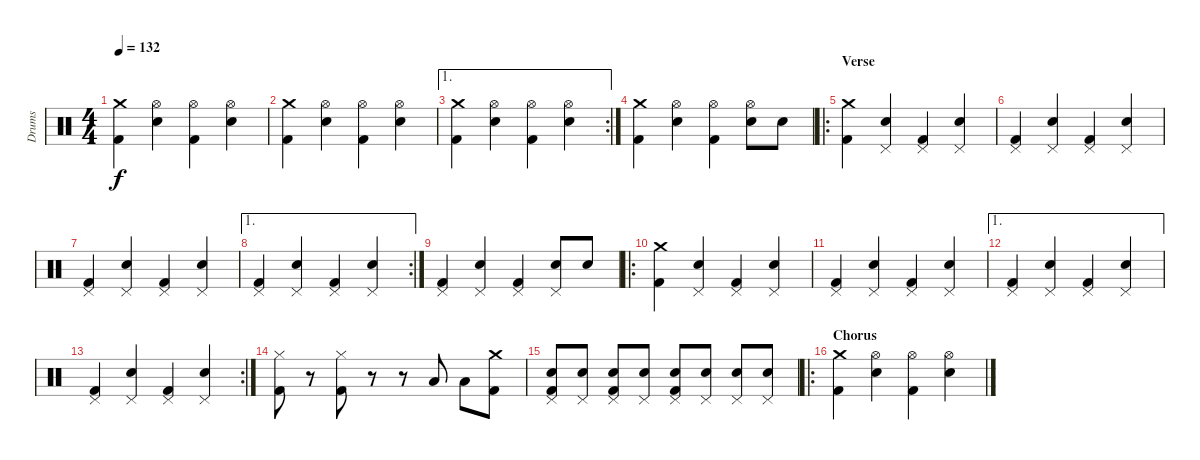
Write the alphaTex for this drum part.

\track ("Drums" "Drums") {instrument percussion}
\staff {score}
\articulation defaults
\ts (4 4)
\tempo 132
\clef neutral
\ks c
("Kick (hit) 2" "Crash medium (hit)").4{dy f} ("Electric Snare (hit)" "Hi-Hat (open)").4 ("Kick (hit) 2" "Hi-Hat (open)").4 ("Electric Snare (hit)" "Hi-Hat (open)").4 |
("Kick (hit) 2" "Crash medium (hit)").4 ("Electric Snare (hit)" "Hi-Hat (open)").4 ("Kick (hit) 2" "Hi-Hat (open)").4 ("Electric Snare (hit)" "Hi-Hat (open)").4 |
\ae 1
\rc 2
("Kick (hit) 2" "Crash medium (hit)").4 ("Electric Snare (hit)" "Hi-Hat (open)").4 ("Kick (hit) 2" "Hi-Hat (open)").4 ("Electric Snare (hit)" "Hi-Hat (open)").4 |
("Kick (hit) 2" "Crash medium (hit)").4 ("Electric Snare (hit)" "Hi-Hat (open)").4 ("Kick (hit) 2" "Hi-Hat (open)").4 ("Electric Snare (hit)" "Hi-Hat (open)").8 "Snare (hit) 2".8 |
\ro
\section ("" "Verse")
("Kick (hit) 2" "Crash medium (hit)").4 ("Snare (hit) 2" "Pedal Hi-Hat (hit)").4 ("Kick (hit) 2" "Pedal Hi-Hat (hit)").4 ("Snare (hit) 2" "Pedal Hi-Hat (hit)").4 |
("Kick (hit) 2" "Pedal Hi-Hat (hit)").4 ("Snare (hit) 2" "Pedal Hi-Hat (hit)").4 ("Kick (hit) 2" "Pedal Hi-Hat (hit)").4 ("Snare (hit) 2" "Pedal Hi-Hat (hit)").4 |
("Kick (hit) 2" "Pedal Hi-Hat (hit)").4 ("Snare (hit) 2" "Pedal Hi-Hat (hit)").4 ("Kick (hit) 2" "Pedal Hi-Hat (hit)").4 ("Snare (hit) 2" "Pedal Hi-Hat (hit)").4 |
\ae 1
\rc 2
("Kick (hit) 2" "Pedal Hi-Hat (hit)").4 ("Snare (hit) 2" "Pedal Hi-Hat (hit)").4 ("Kick (hit) 2" "Pedal Hi-Hat (hit)").4 ("Snare (hit) 2" "Pedal Hi-Hat (hit)").4 |
("Kick (hit) 2" "Pedal Hi-Hat (hit)").4 ("Snare (hit) 2" "Pedal Hi-Hat (hit)").4 ("Kick (hit) 2" "Pedal Hi-Hat (hit)").4 ("Snare (hit) 2" "Pedal Hi-Hat (hit)").8 "Snare (hit) 2".8 |
\ro
("Kick (hit) 2" "Crash medium (hit)").4 ("Snare (hit) 2" "Pedal Hi-Hat (hit)").4 ("Kick (hit) 2" "Pedal Hi-Hat (hit)").4 ("Snare (hit) 2" "Pedal Hi-Hat (hit)").4 |
("Kick (hit) 2" "Pedal Hi-Hat (hit)").4 ("Snare (hit) 2" "Pedal Hi-Hat (hit)").4 ("Kick (hit) 2" "Pedal Hi-Hat (hit)").4 ("Snare (hit) 2" "Pedal Hi-Hat (hit)").4 |
\ae 1
("Kick (hit) 2" "Pedal Hi-Hat (hit)").4 ("Snare (hit) 2" "Pedal Hi-Hat (hit)").4 ("Kick (hit) 2" "Pedal Hi-Hat (hit)").4 ("Snare (hit) 2" "Pedal Hi-Hat (hit)").4 |
\rc 2
("Kick (hit) 2" "Pedal Hi-Hat (hit)").4 ("Snare (hit) 2" "Pedal Hi-Hat (hit)").4 ("Kick (hit) 2" "Pedal Hi-Hat (hit)").4 ("Snare (hit) 2" "Pedal Hi-Hat (hit)").4 |
("Kick (hit) 2" "Hi-Hat (closed)").8 r.8 ("Kick (hit) 2" "Hi-Hat (closed)").8 r.8 r.8 "Low Tom (hit)".8 "Low Tom (hit)".8 ("Kick (hit) 2" "Crash medium (hit)").8 |
("Kick (hit) 2" "Electric Snare (hit)" "Pedal Hi-Hat (hit)").8 ("Electric Snare (hit)" "Pedal Hi-Hat (hit)").8 ("Kick (hit) 2" "Electric Snare (hit)" "Pedal Hi-Hat (hit)").8 ("Electric Snare (hit)" "Pedal Hi-Hat (hit)").8 ("Kick (hit) 2" "Electric Snare (hit)" "Pedal Hi-Hat (hit)").8 ("Electric Snare (hit)" "Pedal Hi-Hat (hit)").8 ("Electric Snare (hit)" "Pedal Hi-Hat (hit)").8 ("Electric Snare (hit)" "Pedal Hi-Hat (hit)").8 |
\ro
\section ("" "Chorus")
("Kick (hit) 2" "Crash medium (hit)").4{volume 9} ("Electric Snare (hit)" "Hi-Hat (open)").4 ("Kick (hit) 2" "Hi-Hat (open)").4 ("Electric Snare (hit)" "Hi-Hat (open)").4
